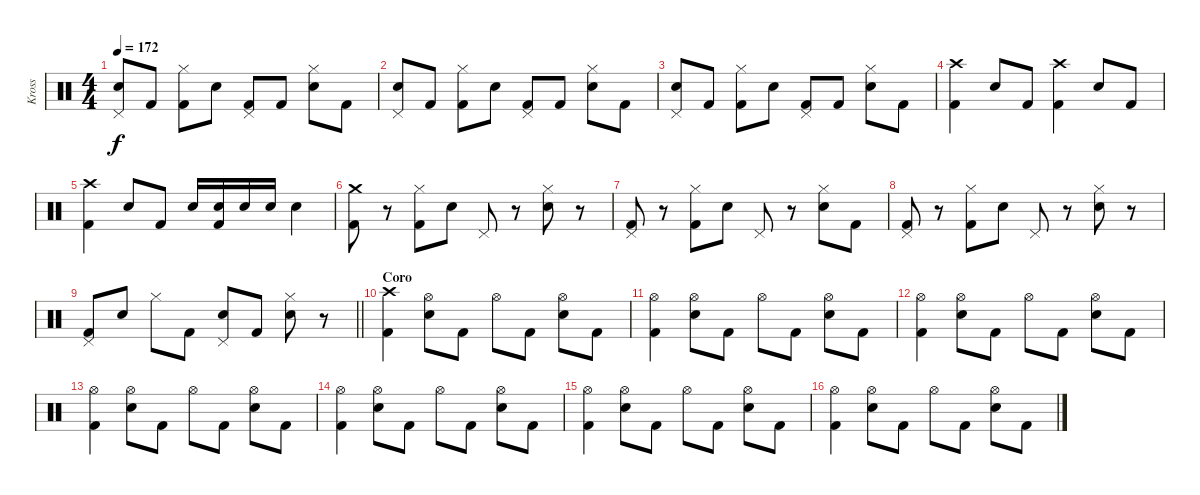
\track ("Kross" "Kross") {instrument percussion}
\staff {score}
\articulation defaults
\ts (4 4)
\tempo 172
\clef neutral
\ks c
("Pedal Hi-Hat (hit)" "Electric Snare (hit)").8{dy f} "Kick (hit) 2".8 ("Hi-Hat (closed)" "Kick (hit) 2").8 "Electric Snare (hit)".8 ("Pedal Hi-Hat (hit)" "Kick (hit) 2").8 "Kick (hit) 2".8 ("Hi-Hat (closed)" "Electric Snare (hit)").8 "Kick (hit) 2".8 |
("Pedal Hi-Hat (hit)" "Electric Snare (hit)").8 "Kick (hit) 2".8 ("Hi-Hat (closed)" "Kick (hit) 2").8 "Electric Snare (hit)".8 ("Pedal Hi-Hat (hit)" "Kick (hit) 2").8 "Kick (hit) 2".8 ("Hi-Hat (closed)" "Electric Snare (hit)").8 "Kick (hit) 2".8 |
("Pedal Hi-Hat (hit)" "Electric Snare (hit)").8 "Kick (hit) 2".8 ("Hi-Hat (closed)" "Kick (hit) 2").8 "Electric Snare (hit)".8 ("Pedal Hi-Hat (hit)" "Kick (hit) 2").8 "Kick (hit) 2".8 ("Hi-Hat (closed)" "Electric Snare (hit)").8 "Kick (hit) 2".8 |
("Crash high (hit)" "Kick (hit) 2").4 "Electric Snare (hit)".8 "Kick (hit) 2".8 ("Crash high (hit)" "Kick (hit) 2").4 "Electric Snare (hit)".8 "Kick (hit) 2".8 |
("Crash high (hit)" "Kick (hit) 2").4 "Electric Snare (hit)".8 "Kick (hit) 2".8 "Electric Snare (hit)".16 ("Electric Snare (hit)" "Kick (hit) 2").16 "Electric Snare (hit)".16 "Electric Snare (hit)".16 "Electric Snare (hit)".4 |
("Crash medium (hit)" "Kick (hit) 2").8 r.8 ("Hi-Hat (closed)" "Kick (hit) 2").8 "Electric Snare (hit)".8 "Pedal Hi-Hat (hit)".8 r.8 ("Hi-Hat (closed)" "Electric Snare (hit)").8 r.8 |
("Pedal Hi-Hat (hit)" "Kick (hit) 2").8 r.8 ("Hi-Hat (closed)" "Kick (hit) 2").8 "Electric Snare (hit)".8 "Pedal Hi-Hat (hit)".8 r.8 ("Hi-Hat (closed)" "Electric Snare (hit)").8 "Kick (hit) 2".8 |
("Pedal Hi-Hat (hit)" "Kick (hit) 2").8 r.8 ("Hi-Hat (closed)" "Kick (hit) 2").8 "Electric Snare (hit)".8 "Pedal Hi-Hat (hit)".8 r.8 ("Hi-Hat (closed)" "Electric Snare (hit)").8 r.8 |
\barLineRight lightlight
("Pedal Hi-Hat (hit)" "Kick (hit) 2").8 "Electric Snare (hit)".8 "Hi-Hat (closed)".8 "Kick (hit) 2".8 ("Pedal Hi-Hat (hit)" "Electric Snare (hit)").8 "Kick (hit) 2".8 ("Hi-Hat (closed)" "Electric Snare (hit)").8 r.8 |
\section ("" "Coro")
("Crash high (hit)" "Kick (hit) 2").4 ("Hi-Hat (open)" "Electric Snare (hit)").8 "Kick (hit) 2".8 "Hi-Hat (open)".8 "Kick (hit) 2".8 ("Hi-Hat (open)" "Electric Snare (hit)").8 "Kick (hit) 2".8 |
("Hi-Hat (open)" "Kick (hit) 2").4 ("Hi-Hat (open)" "Electric Snare (hit)").8 "Kick (hit) 2".8 "Hi-Hat (open)".8 "Kick (hit) 2".8 ("Hi-Hat (open)" "Electric Snare (hit)").8 "Kick (hit) 2".8 |
("Hi-Hat (open)" "Kick (hit) 2").4 ("Hi-Hat (open)" "Electric Snare (hit)").8 "Kick (hit) 2".8 "Hi-Hat (open)".8 "Kick (hit) 2".8 ("Hi-Hat (open)" "Electric Snare (hit)").8 "Kick (hit) 2".8 |
("Hi-Hat (open)" "Kick (hit) 2").4 ("Hi-Hat (open)" "Electric Snare (hit)").8 "Kick (hit) 2".8 "Hi-Hat (open)".8 "Kick (hit) 2".8 ("Hi-Hat (open)" "Electric Snare (hit)").8 "Kick (hit) 2".8 |
("Hi-Hat (open)" "Kick (hit) 2").4 ("Hi-Hat (open)" "Electric Snare (hit)").8 "Kick (hit) 2".8 "Hi-Hat (open)".8 "Kick (hit) 2".8 ("Hi-Hat (open)" "Electric Snare (hit)").8 "Kick (hit) 2".8 |
("Hi-Hat (open)" "Kick (hit) 2").4 ("Hi-Hat (open)" "Electric Snare (hit)").8 "Kick (hit) 2".8 "Hi-Hat (open)".8 "Kick (hit) 2".8 ("Hi-Hat (open)" "Electric Snare (hit)").8 "Kick (hit) 2".8 |
("Hi-Hat (open)" "Kick (hit) 2").4 ("Hi-Hat (open)" "Electric Snare (hit)").8 "Kick (hit) 2".8 "Hi-Hat (open)".8 "Kick (hit) 2".8 ("Hi-Hat (open)" "Electric Snare (hit)").8 "Kick (hit) 2".8
